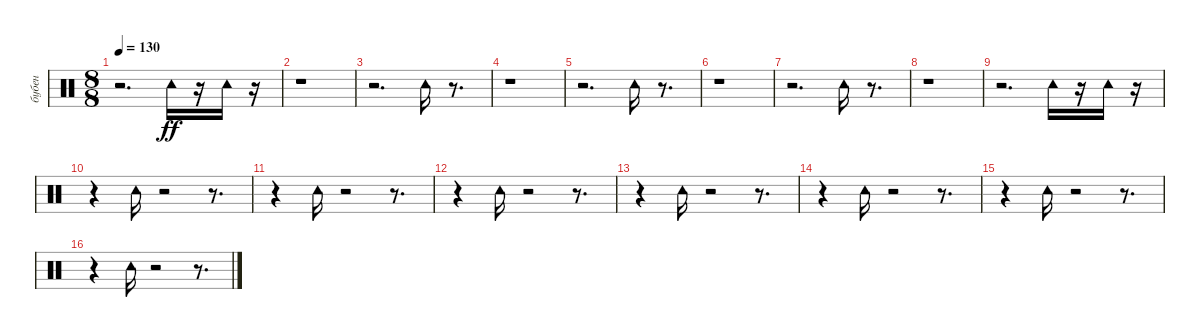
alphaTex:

\track ("бубен" "бубен") {instrument percussion}
\staff {score}
\articulation defaults
\ts (8 8)
\tempo 130
\clef neutral
\ks c
r.2{d dy ff} "Tambourine (hit)".16 r.16 "Tambourine (hit)".16 r.16 |
r.1 |
r.2{d} "Tambourine (hit)".16 r.8{d} |
r.1 |
r.2{d} "Tambourine (hit)".16 r.8{d} |
r.1 |
r.2{d} "Tambourine (hit)".16 r.8{d} |
r.1 |
r.2{d} "Tambourine (hit)".16 r.16 "Tambourine (hit)".16 r.16 |
r.4 "Tambourine (hit)".16 r.2 r.8{d} |
r.4 "Tambourine (hit)".16 r.2 r.8{d} |
r.4 "Tambourine (hit)".16 r.2 r.8{d} |
r.4 "Tambourine (hit)".16 r.2 r.8{d} |
r.4 "Tambourine (hit)".16 r.2 r.8{d} |
r.4 "Tambourine (hit)".16 r.2 r.8{d} |
r.4 "Tambourine (hit)".16 r.2 r.8{d}
